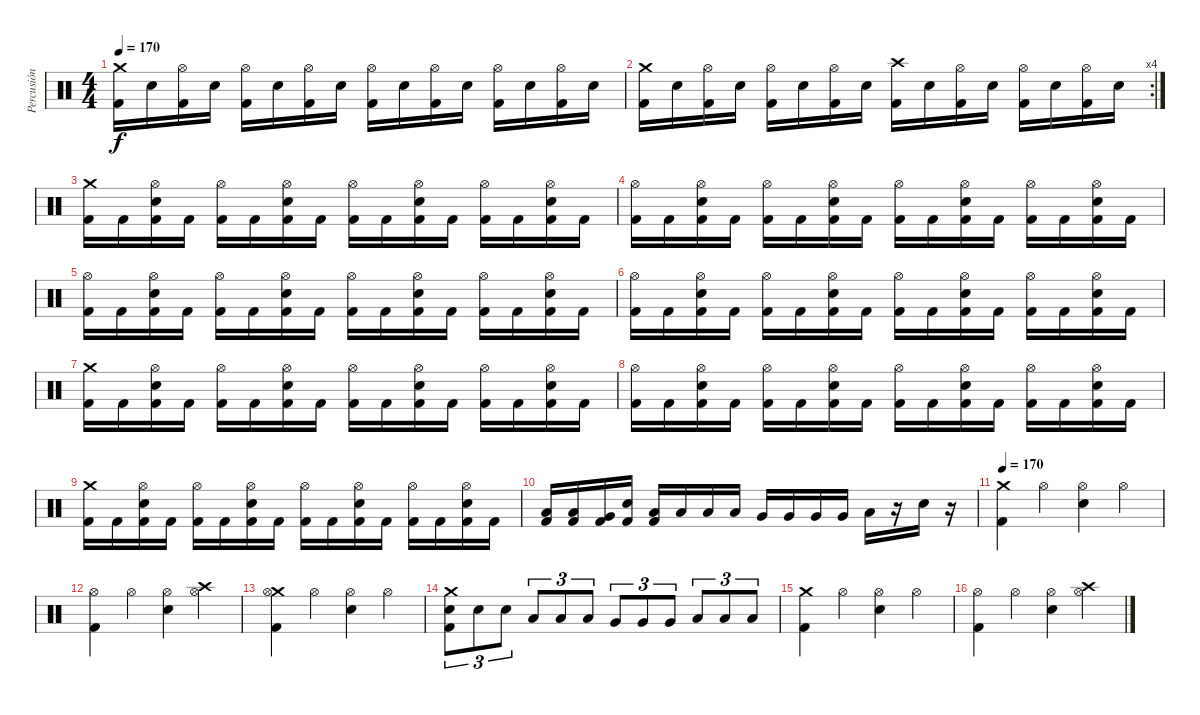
\track ("Percusión" "Percusión") {instrument percussion}
\staff {score}
\articulation defaults
\ts (4 4)
\tempo 170
\clef neutral
\ks c
("Crash medium (hit)" "Kick (hit) 2").16{dy f} "Electric Snare (hit)".16 ("Hi-Hat (open)" "Kick (hit) 2").16 "Electric Snare (hit)".16 ("Hi-Hat (open)" "Kick (hit) 2").16 "Electric Snare (hit)".16 ("Hi-Hat (open)" "Kick (hit) 2").16 "Electric Snare (hit)".16 ("Hi-Hat (open)" "Kick (hit) 2").16 "Electric Snare (hit)".16 ("Hi-Hat (open)" "Kick (hit) 2").16 "Electric Snare (hit)".16 ("Hi-Hat (open)" "Kick (hit) 2").16 "Electric Snare (hit)".16 ("Hi-Hat (open)" "Kick (hit) 2").16 "Electric Snare (hit)".16 |
\rc 4
("Crash medium (hit)" "Kick (hit) 2").16 "Electric Snare (hit)".16 ("Hi-Hat (open)" "Kick (hit) 2").16 "Electric Snare (hit)".16 ("Hi-Hat (open)" "Kick (hit) 2").16 "Electric Snare (hit)".16 ("Hi-Hat (open)" "Kick (hit) 2").16 "Electric Snare (hit)".16 ("Crash high (hit)" "Kick (hit) 2").16 "Electric Snare (hit)".16 ("Hi-Hat (open)" "Kick (hit) 2").16 "Electric Snare (hit)".16 ("Hi-Hat (open)" "Kick (hit) 2").16 "Electric Snare (hit)".16 ("Hi-Hat (open)" "Kick (hit) 2").16 "Electric Snare (hit)".16 |
("Crash medium (hit)" "Kick (hit) 2").16 "Kick (hit) 2".16 ("Hi-Hat (open)" "Electric Snare (hit)" "Kick (hit) 2").16 "Kick (hit) 2".16 ("Hi-Hat (open)" "Kick (hit) 2").16 "Kick (hit) 2".16 ("Hi-Hat (open)" "Electric Snare (hit)" "Kick (hit) 2").16 "Kick (hit) 2".16 ("Hi-Hat (open)" "Kick (hit) 2").16 "Kick (hit) 2".16 ("Hi-Hat (open)" "Electric Snare (hit)" "Kick (hit) 2").16 "Kick (hit) 2".16 ("Hi-Hat (open)" "Kick (hit) 2").16 "Kick (hit) 2".16 ("Hi-Hat (open)" "Electric Snare (hit)" "Kick (hit) 2").16 "Kick (hit) 2".16 |
("Hi-Hat (open)" "Kick (hit) 2").16 "Kick (hit) 2".16 ("Hi-Hat (open)" "Electric Snare (hit)" "Kick (hit) 2").16 "Kick (hit) 2".16 ("Hi-Hat (open)" "Kick (hit) 2").16 "Kick (hit) 2".16 ("Hi-Hat (open)" "Electric Snare (hit)" "Kick (hit) 2").16 "Kick (hit) 2".16 ("Hi-Hat (open)" "Kick (hit) 2").16 "Kick (hit) 2".16 ("Hi-Hat (open)" "Electric Snare (hit)" "Kick (hit) 2").16 "Kick (hit) 2".16 ("Hi-Hat (open)" "Kick (hit) 2").16 "Kick (hit) 2".16 ("Hi-Hat (open)" "Electric Snare (hit)" "Kick (hit) 2").16 "Kick (hit) 2".16 |
("Hi-Hat (open)" "Kick (hit) 2").16 "Kick (hit) 2".16 ("Hi-Hat (open)" "Electric Snare (hit)" "Kick (hit) 2").16 "Kick (hit) 2".16 ("Hi-Hat (open)" "Kick (hit) 2").16 "Kick (hit) 2".16 ("Hi-Hat (open)" "Electric Snare (hit)" "Kick (hit) 2").16 "Kick (hit) 2".16 ("Hi-Hat (open)" "Kick (hit) 2").16 "Kick (hit) 2".16 ("Hi-Hat (open)" "Electric Snare (hit)" "Kick (hit) 2").16 "Kick (hit) 2".16 ("Hi-Hat (open)" "Kick (hit) 2").16 "Kick (hit) 2".16 ("Hi-Hat (open)" "Electric Snare (hit)" "Kick (hit) 2").16 "Kick (hit) 2".16 |
("Hi-Hat (open)" "Kick (hit) 2").16 "Kick (hit) 2".16 ("Hi-Hat (open)" "Electric Snare (hit)" "Kick (hit) 2").16 "Kick (hit) 2".16 ("Hi-Hat (open)" "Kick (hit) 2").16 "Kick (hit) 2".16 ("Hi-Hat (open)" "Electric Snare (hit)" "Kick (hit) 2").16 "Kick (hit) 2".16 ("Hi-Hat (open)" "Kick (hit) 2").16 "Kick (hit) 2".16 ("Hi-Hat (open)" "Electric Snare (hit)" "Kick (hit) 2").16 "Kick (hit) 2".16 ("Hi-Hat (open)" "Kick (hit) 2").16 "Kick (hit) 2".16 ("Hi-Hat (open)" "Electric Snare (hit)" "Kick (hit) 2").16 "Kick (hit) 2".16 |
("Crash medium (hit)" "Kick (hit) 2").16 "Kick (hit) 2".16 ("Hi-Hat (open)" "Electric Snare (hit)" "Kick (hit) 2").16 "Kick (hit) 2".16 ("Hi-Hat (open)" "Kick (hit) 2").16 "Kick (hit) 2".16 ("Hi-Hat (open)" "Electric Snare (hit)" "Kick (hit) 2").16 "Kick (hit) 2".16 ("Hi-Hat (open)" "Kick (hit) 2").16 "Kick (hit) 2".16 ("Hi-Hat (open)" "Electric Snare (hit)" "Kick (hit) 2").16 "Kick (hit) 2".16 ("Hi-Hat (open)" "Kick (hit) 2").16 "Kick (hit) 2".16 ("Hi-Hat (open)" "Electric Snare (hit)" "Kick (hit) 2").16 "Kick (hit) 2".16 |
("Hi-Hat (open)" "Kick (hit) 2").16 "Kick (hit) 2".16 ("Hi-Hat (open)" "Electric Snare (hit)" "Kick (hit) 2").16 "Kick (hit) 2".16 ("Hi-Hat (open)" "Kick (hit) 2").16 "Kick (hit) 2".16 ("Hi-Hat (open)" "Electric Snare (hit)" "Kick (hit) 2").16 "Kick (hit) 2".16 ("Hi-Hat (open)" "Kick (hit) 2").16 "Kick (hit) 2".16 ("Hi-Hat (open)" "Electric Snare (hit)" "Kick (hit) 2").16 "Kick (hit) 2".16 ("Hi-Hat (open)" "Kick (hit) 2").16 "Kick (hit) 2".16 ("Hi-Hat (open)" "Electric Snare (hit)" "Kick (hit) 2").16 "Kick (hit) 2".16 |
("Crash medium (hit)" "Kick (hit) 2").16 "Kick (hit) 2".16 ("Hi-Hat (open)" "Electric Snare (hit)" "Kick (hit) 2").16 "Kick (hit) 2".16 ("Hi-Hat (open)" "Kick (hit) 2").16 "Kick (hit) 2".16 ("Hi-Hat (open)" "Electric Snare (hit)" "Kick (hit) 2").16 "Kick (hit) 2".16 ("Hi-Hat (open)" "Kick (hit) 2").16 "Kick (hit) 2".16 ("Hi-Hat (open)" "Electric Snare (hit)" "Kick (hit) 2").16 "Kick (hit) 2".16 ("Hi-Hat (open)" "Kick (hit) 2").16 "Kick (hit) 2".16 ("Hi-Hat (open)" "Electric Snare (hit)" "Kick (hit) 2").16 "Kick (hit) 2".16 |
("Low Tom (hit)" "Kick (hit) 2").16 ("Low Tom (hit)" "Kick (hit) 2").16 ("Very Low Tom (hit)" "Kick (hit) 2").16 ("Metronome (bell)" "Kick (hit) 2").16 ("Low Tom (hit)" "Kick (hit) 2").16 "Low Tom (hit)".16 "Low Tom (hit)".16 "Low Tom (hit)".16 "Very Low Tom (hit)".16 "Very Low Tom (hit)".16 "Very Low Tom (hit)".16 "Very Low Tom (hit)".16 "Low Floor Tom (hit)".16 r.16 "Electric Snare (hit)".16 r.16 |
\tempo 170
("Crash medium (hit)" "Kick (hit) 2").4 "Hi-Hat (open)".4 ("Hi-Hat (open)" "Electric Snare (hit)").4 "Hi-Hat (open)".4 |
("Hi-Hat (open)" "Kick (hit) 2").4 "Hi-Hat (open)".4 ("Hi-Hat (open)" "Electric Snare (hit)").4 ("Crash high (hit)" "Hi-Hat (open)").4 |
("Crash medium (hit)" "Hi-Hat (open)" "Kick (hit) 2").4 "Hi-Hat (open)".4 ("Hi-Hat (open)" "Electric Snare (hit)").4 "Hi-Hat (open)".4 |
("Crash medium (hit)" "Electric Snare (hit)" "Kick (hit) 2").8{tu (3 2)} "Electric Snare (hit)".8{tu (3 2)} "Electric Snare (hit)".8{tu (3 2)} "Low Tom (hit)".8{tu (3 2)} "Low Tom (hit)".8{tu (3 2)} "Low Tom (hit)".8{tu (3 2)} "Very Low Tom (hit)".8{tu (3 2)} "Very Low Tom (hit)".8{tu (3 2)} "Very Low Tom (hit)".8{tu (3 2)} "Low Floor Tom (hit)".8{tu (3 2)} "Low Floor Tom (hit)".8{tu (3 2)} "Low Floor Tom (hit)".8{tu (3 2)} |
("Crash medium (hit)" "Kick (hit) 2").4 "Hi-Hat (open)".4 ("Hi-Hat (open)" "Electric Snare (hit)").4 "Hi-Hat (open)".4 |
("Hi-Hat (open)" "Kick (hit) 2").4 "Hi-Hat (open)".4 ("Hi-Hat (open)" "Electric Snare (hit)").4 ("Crash high (hit)" "Hi-Hat (open)").4
